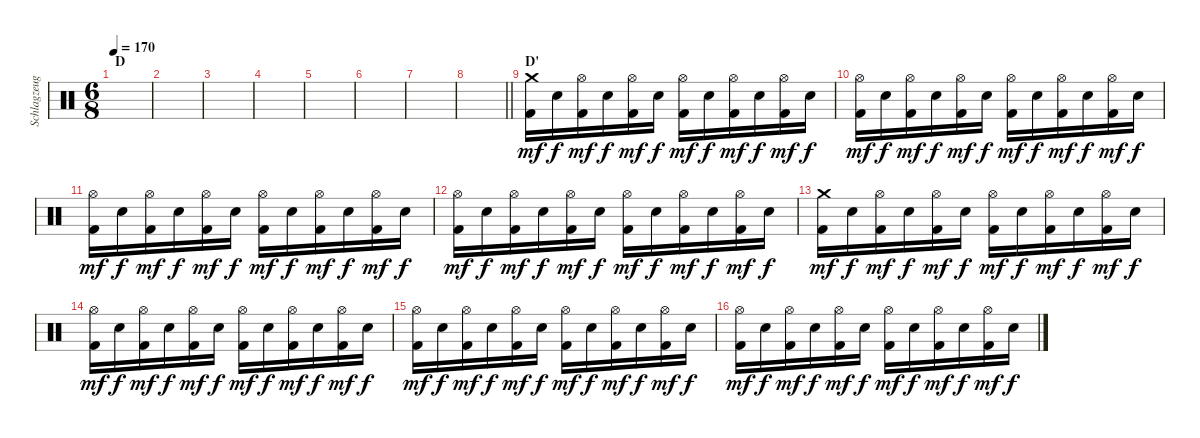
\track ("Schlagzeug" "Schlagzeug") {instrument percussion}
\staff {score}
\articulation defaults
\ts (6 8)
\section ("" "D")
\tempo 170
\clef neutral
\ks c
|
|
|
|
|
|
|
\barLineRight lightlight
|
\section ("" "D'")
("Crash medium (hit)" "Kick (hit) 2").16{dy mf} "Electric Snare (hit)".16{dy f} ("Hi-Hat (open)" "Kick (hit) 2").16{dy mf} "Electric Snare (hit)".16{dy f} ("Hi-Hat (open)" "Kick (hit) 2").16{dy mf} "Electric Snare (hit)".16{dy f} ("Hi-Hat (open)" "Kick (hit) 2").16{dy mf} "Electric Snare (hit)".16{dy f} ("Hi-Hat (open)" "Kick (hit) 2").16{dy mf} "Electric Snare (hit)".16{dy f} ("Hi-Hat (open)" "Kick (hit) 2").16{dy mf} "Electric Snare (hit)".16{dy f} |
("Hi-Hat (open)" "Kick (hit) 2").16{dy mf} "Electric Snare (hit)".16{dy f} ("Hi-Hat (open)" "Kick (hit) 2").16{dy mf} "Electric Snare (hit)".16{dy f} ("Hi-Hat (open)" "Kick (hit) 2").16{dy mf} "Electric Snare (hit)".16{dy f} ("Hi-Hat (open)" "Kick (hit) 2").16{dy mf} "Electric Snare (hit)".16{dy f} ("Hi-Hat (open)" "Kick (hit) 2").16{dy mf} "Electric Snare (hit)".16{dy f} ("Hi-Hat (open)" "Kick (hit) 2").16{dy mf} "Electric Snare (hit)".16{dy f} |
("Hi-Hat (open)" "Kick (hit) 2").16{dy mf} "Electric Snare (hit)".16{dy f} ("Hi-Hat (open)" "Kick (hit) 2").16{dy mf} "Electric Snare (hit)".16{dy f} ("Hi-Hat (open)" "Kick (hit) 2").16{dy mf} "Electric Snare (hit)".16{dy f} ("Hi-Hat (open)" "Kick (hit) 2").16{dy mf} "Electric Snare (hit)".16{dy f} ("Hi-Hat (open)" "Kick (hit) 2").16{dy mf} "Electric Snare (hit)".16{dy f} ("Hi-Hat (open)" "Kick (hit) 2").16{dy mf} "Electric Snare (hit)".16{dy f} |
("Hi-Hat (open)" "Kick (hit) 2").16{dy mf} "Electric Snare (hit)".16{dy f} ("Hi-Hat (open)" "Kick (hit) 2").16{dy mf} "Electric Snare (hit)".16{dy f} ("Hi-Hat (open)" "Kick (hit) 2").16{dy mf} "Electric Snare (hit)".16{dy f} ("Hi-Hat (open)" "Kick (hit) 2").16{dy mf} "Electric Snare (hit)".16{dy f} ("Hi-Hat (open)" "Kick (hit) 2").16{dy mf} "Electric Snare (hit)".16{dy f} ("Hi-Hat (open)" "Kick (hit) 2").16{dy mf} "Electric Snare (hit)".16{dy f} |
("Crash medium (hit)" "Kick (hit) 2").16{dy mf} "Electric Snare (hit)".16{dy f} ("Hi-Hat (open)" "Kick (hit) 2").16{dy mf} "Electric Snare (hit)".16{dy f} ("Hi-Hat (open)" "Kick (hit) 2").16{dy mf} "Electric Snare (hit)".16{dy f} ("Hi-Hat (open)" "Kick (hit) 2").16{dy mf} "Electric Snare (hit)".16{dy f} ("Hi-Hat (open)" "Kick (hit) 2").16{dy mf} "Electric Snare (hit)".16{dy f} ("Hi-Hat (open)" "Kick (hit) 2").16{dy mf} "Electric Snare (hit)".16{dy f} |
("Hi-Hat (open)" "Kick (hit) 2").16{dy mf} "Electric Snare (hit)".16{dy f} ("Hi-Hat (open)" "Kick (hit) 2").16{dy mf} "Electric Snare (hit)".16{dy f} ("Hi-Hat (open)" "Kick (hit) 2").16{dy mf} "Electric Snare (hit)".16{dy f} ("Hi-Hat (open)" "Kick (hit) 2").16{dy mf} "Electric Snare (hit)".16{dy f} ("Hi-Hat (open)" "Kick (hit) 2").16{dy mf} "Electric Snare (hit)".16{dy f} ("Hi-Hat (open)" "Kick (hit) 2").16{dy mf} "Electric Snare (hit)".16{dy f} |
("Hi-Hat (open)" "Kick (hit) 2").16{dy mf} "Electric Snare (hit)".16{dy f} ("Hi-Hat (open)" "Kick (hit) 2").16{dy mf} "Electric Snare (hit)".16{dy f} ("Hi-Hat (open)" "Kick (hit) 2").16{dy mf} "Electric Snare (hit)".16{dy f} ("Hi-Hat (open)" "Kick (hit) 2").16{dy mf} "Electric Snare (hit)".16{dy f} ("Hi-Hat (open)" "Kick (hit) 2").16{dy mf} "Electric Snare (hit)".16{dy f} ("Hi-Hat (open)" "Kick (hit) 2").16{dy mf} "Electric Snare (hit)".16{dy f} |
("Hi-Hat (open)" "Kick (hit) 2").16{dy mf} "Electric Snare (hit)".16{dy f} ("Hi-Hat (open)" "Kick (hit) 2").16{dy mf} "Electric Snare (hit)".16{dy f} ("Hi-Hat (open)" "Kick (hit) 2").16{dy mf} "Electric Snare (hit)".16{dy f} ("Hi-Hat (open)" "Kick (hit) 2").16{dy mf} "Electric Snare (hit)".16{dy f} ("Hi-Hat (open)" "Kick (hit) 2").16{dy mf} "Electric Snare (hit)".16{dy f} ("Hi-Hat (open)" "Kick (hit) 2").16{dy mf} "Electric Snare (hit)".16{dy f}
